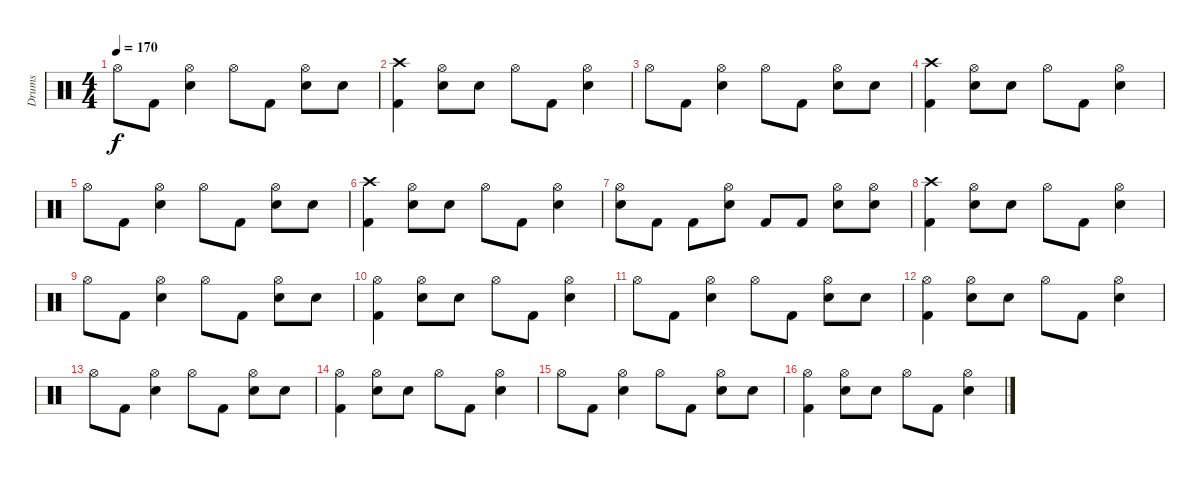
\track ("Drums" "Drums") {instrument percussion}
\staff {score}
\articulation defaults
\ts (4 4)
\tempo 170
\clef neutral
\ks c "Hi-Hat (open)".8{dy f} "Kick (hit) 2".8
("Hi-Hat (open)" "Electric Snare (hit)").4 "Hi-Hat (open)".8 "Kick (hit) 2".8 ("Hi-Hat (open)" "Electric Snare (hit)").8 "Electric Snare (hit)".8 |
("Crash high (hit)" "Kick (hit) 2").4 ("Hi-Hat (open)" "Electric Snare (hit)").8 "Electric Snare (hit)".8 "Hi-Hat (open)".8 "Kick (hit) 2".8 ("Hi-Hat (open)" "Electric Snare (hit)").4 |
"Hi-Hat (open)".8 "Kick (hit) 2".8 ("Hi-Hat (open)" "Electric Snare (hit)").4 "Hi-Hat (open)".8 "Kick (hit) 2".8 ("Hi-Hat (open)" "Electric Snare (hit)").8 "Electric Snare (hit)".8 |
("Crash high (hit)" "Kick (hit) 2").4 ("Hi-Hat (open)" "Electric Snare (hit)").8 "Electric Snare (hit)".8 "Hi-Hat (open)".8 "Kick (hit) 2".8 ("Hi-Hat (open)" "Electric Snare (hit)").4 |
"Hi-Hat (open)".8 "Kick (hit) 2".8 ("Hi-Hat (open)" "Electric Snare (hit)").4 "Hi-Hat (open)".8 "Kick (hit) 2".8 ("Hi-Hat (open)" "Electric Snare (hit)").8 "Electric Snare (hit)".8 |
("Crash high (hit)" "Kick (hit) 2").4 ("Hi-Hat (open)" "Electric Snare (hit)").8 "Electric Snare (hit)".8 "Hi-Hat (open)".8 "Kick (hit) 2".8 ("Hi-Hat (open)" "Electric Snare (hit)").4 |
("Hi-Hat (open)" "Electric Snare (hit)").8 "Kick (hit) 2".8 "Kick (hit) 2".8 ("Hi-Hat (open)" "Electric Snare (hit)").8 "Kick (hit) 2".8 "Kick (hit) 2".8 ("Hi-Hat (open)" "Electric Snare (hit)").8 ("Hi-Hat (open)" "Electric Snare (hit)").8 |
("Crash high (hit)" "Kick (hit) 2").4 ("Hi-Hat (open)" "Electric Snare (hit)").8 "Electric Snare (hit)".8 "Hi-Hat (open)".8 "Kick (hit) 2".8 ("Hi-Hat (open)" "Electric Snare (hit)").4 |
"Hi-Hat (open)".8 "Kick (hit) 2".8 ("Hi-Hat (open)" "Electric Snare (hit)").4 "Hi-Hat (open)".8 "Kick (hit) 2".8 ("Hi-Hat (open)" "Electric Snare (hit)").8 "Electric Snare (hit)".8 |
("Hi-Hat (open)" "Kick (hit) 2").4 ("Hi-Hat (open)" "Electric Snare (hit)").8 "Electric Snare (hit)".8 "Hi-Hat (open)".8 "Kick (hit) 2".8 ("Hi-Hat (open)" "Electric Snare (hit)").4 |
"Hi-Hat (open)".8 "Kick (hit) 2".8 ("Hi-Hat (open)" "Electric Snare (hit)").4 "Hi-Hat (open)".8 "Kick (hit) 2".8 ("Hi-Hat (open)" "Electric Snare (hit)").8 "Electric Snare (hit)".8 |
("Hi-Hat (open)" "Kick (hit) 2").4 ("Hi-Hat (open)" "Electric Snare (hit)").8 "Electric Snare (hit)".8 "Hi-Hat (open)".8 "Kick (hit) 2".8 ("Hi-Hat (open)" "Electric Snare (hit)").4 |
"Hi-Hat (open)".8 "Kick (hit) 2".8 ("Hi-Hat (open)" "Electric Snare (hit)").4 "Hi-Hat (open)".8 "Kick (hit) 2".8 ("Hi-Hat (open)" "Electric Snare (hit)").8 "Electric Snare (hit)".8 |
("Hi-Hat (open)" "Kick (hit) 2").4 ("Hi-Hat (open)" "Electric Snare (hit)").8 "Electric Snare (hit)".8 "Hi-Hat (open)".8 "Kick (hit) 2".8 ("Hi-Hat (open)" "Electric Snare (hit)").4 |
"Hi-Hat (open)".8 "Kick (hit) 2".8 ("Hi-Hat (open)" "Electric Snare (hit)").4 "Hi-Hat (open)".8 "Kick (hit) 2".8 ("Hi-Hat (open)" "Electric Snare (hit)").8 "Electric Snare (hit)".8 |
("Hi-Hat (open)" "Kick (hit) 2").4 ("Hi-Hat (open)" "Electric Snare (hit)").8 "Electric Snare (hit)".8 "Hi-Hat (open)".8 "Kick (hit) 2".8 ("Hi-Hat (open)" "Electric Snare (hit)").4
